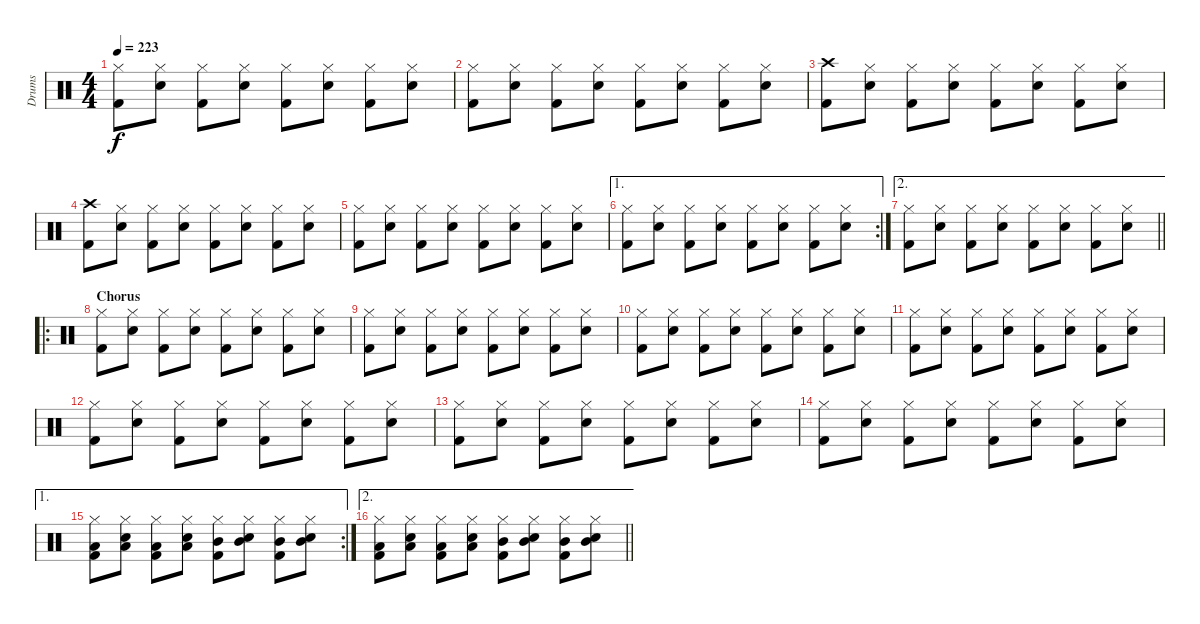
\track ("Drums" "Drums") {instrument percussion}
\staff {score}
\articulation defaults
\ts (4 4)
\tempo 223
\clef neutral
\ks c
("Hi-Hat (closed)" "Kick (hit) 2").8{dy f} ("Hi-Hat (closed)" "Snare (hit) 2").8 ("Hi-Hat (closed)" "Kick (hit) 2").8 ("Hi-Hat (closed)" "Snare (hit) 2").8 ("Hi-Hat (closed)" "Kick (hit) 2").8 ("Hi-Hat (closed)" "Snare (hit) 2").8 ("Hi-Hat (closed)" "Kick (hit) 2").8 ("Hi-Hat (closed)" "Snare (hit) 2").8 |
("Hi-Hat (closed)" "Kick (hit) 2").8 ("Hi-Hat (closed)" "Snare (hit) 2").8 ("Hi-Hat (closed)" "Kick (hit) 2").8 ("Hi-Hat (closed)" "Snare (hit) 2").8 ("Hi-Hat (closed)" "Kick (hit) 2").8 ("Hi-Hat (closed)" "Snare (hit) 2").8 ("Hi-Hat (closed)" "Kick (hit) 2").8 ("Hi-Hat (closed)" "Snare (hit) 2").8 |
("Crash high (hit)" "Kick (hit) 2").8 ("Hi-Hat (closed)" "Snare (hit) 2").8 ("Hi-Hat (closed)" "Kick (hit) 2").8 ("Hi-Hat (closed)" "Snare (hit) 2").8 ("Hi-Hat (closed)" "Kick (hit) 2").8 ("Hi-Hat (closed)" "Snare (hit) 2").8 ("Hi-Hat (closed)" "Kick (hit) 2").8 ("Hi-Hat (closed)" "Snare (hit) 2").8 |
("Crash high (hit)" "Kick (hit) 2").8 ("Hi-Hat (closed)" "Snare (hit) 2").8 ("Hi-Hat (closed)" "Kick (hit) 2").8 ("Hi-Hat (closed)" "Snare (hit) 2").8 ("Hi-Hat (closed)" "Kick (hit) 2").8 ("Hi-Hat (closed)" "Snare (hit) 2").8 ("Hi-Hat (closed)" "Kick (hit) 2").8 ("Hi-Hat (closed)" "Snare (hit) 2").8 |
("Hi-Hat (closed)" "Kick (hit) 2").8 ("Hi-Hat (closed)" "Snare (hit) 2").8 ("Hi-Hat (closed)" "Kick (hit) 2").8 ("Hi-Hat (closed)" "Snare (hit) 2").8 ("Hi-Hat (closed)" "Kick (hit) 2").8 ("Hi-Hat (closed)" "Snare (hit) 2").8 ("Hi-Hat (closed)" "Kick (hit) 2").8 ("Hi-Hat (closed)" "Snare (hit) 2").8 |
\ae 1
\rc 2
("Hi-Hat (closed)" "Kick (hit) 2").8 ("Hi-Hat (closed)" "Snare (hit) 2").8 ("Hi-Hat (closed)" "Kick (hit) 2").8 ("Hi-Hat (closed)" "Snare (hit) 2").8 ("Hi-Hat (closed)" "Kick (hit) 2").8 ("Hi-Hat (closed)" "Snare (hit) 2").8 ("Hi-Hat (closed)" "Kick (hit) 2").8 ("Hi-Hat (closed)" "Snare (hit) 2").8 |
\ae 2
\barLineRight lightlight
("Hi-Hat (closed)" "Kick (hit) 2").8 ("Hi-Hat (closed)" "Snare (hit) 2").8 ("Hi-Hat (closed)" "Kick (hit) 2").8 ("Hi-Hat (closed)" "Snare (hit) 2").8 ("Hi-Hat (closed)" "Kick (hit) 2").8 ("Hi-Hat (closed)" "Snare (hit) 2").8 ("Hi-Hat (closed)" "Kick (hit) 2").8 ("Hi-Hat (closed)" "Snare (hit) 2").8 |
\ro
\section ("" "Chorus")
("Hi-Hat (closed)" "Kick (hit) 2").8 ("Hi-Hat (closed)" "Snare (hit) 2").8 ("Hi-Hat (closed)" "Kick (hit) 2").8 ("Hi-Hat (closed)" "Snare (hit) 2").8 ("Hi-Hat (closed)" "Kick (hit) 2").8 ("Hi-Hat (closed)" "Snare (hit) 2").8 ("Hi-Hat (closed)" "Kick (hit) 2").8 ("Hi-Hat (closed)" "Snare (hit) 2").8 |
("Hi-Hat (closed)" "Kick (hit) 2").8 ("Hi-Hat (closed)" "Snare (hit) 2").8 ("Hi-Hat (closed)" "Kick (hit) 2").8 ("Hi-Hat (closed)" "Snare (hit) 2").8 ("Hi-Hat (closed)" "Kick (hit) 2").8 ("Hi-Hat (closed)" "Snare (hit) 2").8 ("Hi-Hat (closed)" "Kick (hit) 2").8 ("Hi-Hat (closed)" "Snare (hit) 2").8 |
("Hi-Hat (closed)" "Kick (hit) 2").8 ("Hi-Hat (closed)" "Snare (hit) 2").8 ("Hi-Hat (closed)" "Kick (hit) 2").8 ("Hi-Hat (closed)" "Snare (hit) 2").8 ("Hi-Hat (closed)" "Kick (hit) 2").8 ("Hi-Hat (closed)" "Snare (hit) 2").8 ("Hi-Hat (closed)" "Kick (hit) 2").8 ("Hi-Hat (closed)" "Snare (hit) 2").8 |
("Hi-Hat (closed)" "Kick (hit) 2").8 ("Hi-Hat (closed)" "Snare (hit) 2").8 ("Hi-Hat (closed)" "Kick (hit) 2").8 ("Hi-Hat (closed)" "Snare (hit) 2").8 ("Hi-Hat (closed)" "Kick (hit) 2").8 ("Hi-Hat (closed)" "Snare (hit) 2").8 ("Hi-Hat (closed)" "Kick (hit) 2").8 ("Hi-Hat (closed)" "Snare (hit) 2").8 |
("Hi-Hat (closed)" "Kick (hit) 2").8 ("Hi-Hat (closed)" "Snare (hit) 2").8 ("Hi-Hat (closed)" "Kick (hit) 2").8 ("Hi-Hat (closed)" "Snare (hit) 2").8 ("Hi-Hat (closed)" "Kick (hit) 2").8 ("Hi-Hat (closed)" "Snare (hit) 2").8 ("Hi-Hat (closed)" "Kick (hit) 2").8 ("Hi-Hat (closed)" "Snare (hit) 2").8 |
("Hi-Hat (closed)" "Kick (hit) 2").8 ("Hi-Hat (closed)" "Snare (hit) 2").8 ("Hi-Hat (closed)" "Kick (hit) 2").8 ("Hi-Hat (closed)" "Snare (hit) 2").8 ("Hi-Hat (closed)" "Kick (hit) 2").8 ("Hi-Hat (closed)" "Snare (hit) 2").8 ("Hi-Hat (closed)" "Kick (hit) 2").8 ("Hi-Hat (closed)" "Snare (hit) 2").8 |
("Hi-Hat (closed)" "Kick (hit) 2").8 ("Hi-Hat (closed)" "Snare (hit) 2").8 ("Hi-Hat (closed)" "Kick (hit) 2").8 ("Hi-Hat (closed)" "Snare (hit) 2").8 ("Hi-Hat (closed)" "Kick (hit) 2").8 ("Hi-Hat (closed)" "Snare (hit) 2").8 ("Hi-Hat (closed)" "Kick (hit) 2").8 ("Hi-Hat (closed)" "Snare (hit) 2").8 |
\ae 1
\rc 2
("Hi-Hat (closed)" "Low Tom (hit)" "Kick (hit) 2").8 ("Hi-Hat (closed)" "Low Tom (hit)" "Snare (hit) 2").8 ("Hi-Hat (closed)" "Low Tom (hit)" "Kick (hit) 2").8 ("Hi-Hat (closed)" "Low Tom (hit)" "Snare (hit) 2").8 ("Hi-Hat (closed)" "Mid Tom (hit)" "Kick (hit) 2").8 ("Hi-Hat (closed)" "Mid Tom (hit)" "Snare (hit) 2").8 ("Hi-Hat (closed)" "Mid Tom (hit)" "Kick (hit) 2").8 ("Hi-Hat (closed)" "Mid Tom (hit)" "Snare (hit) 2").8 |
\ae 2
\barLineRight lightlight
("Hi-Hat (closed)" "Low Tom (hit)" "Kick (hit) 2").8 ("Hi-Hat (closed)" "Low Tom (hit)" "Snare (hit) 2").8 ("Hi-Hat (closed)" "Low Tom (hit)" "Kick (hit) 2").8 ("Hi-Hat (closed)" "Low Tom (hit)" "Snare (hit) 2").8 ("Hi-Hat (closed)" "Mid Tom (hit)" "Kick (hit) 2").8 ("Hi-Hat (closed)" "Mid Tom (hit)" "Snare (hit) 2").8 ("Hi-Hat (closed)" "Mid Tom (hit)" "Kick (hit) 2").8 ("Hi-Hat (closed)" "Mid Tom (hit)" "Snare (hit) 2").8
